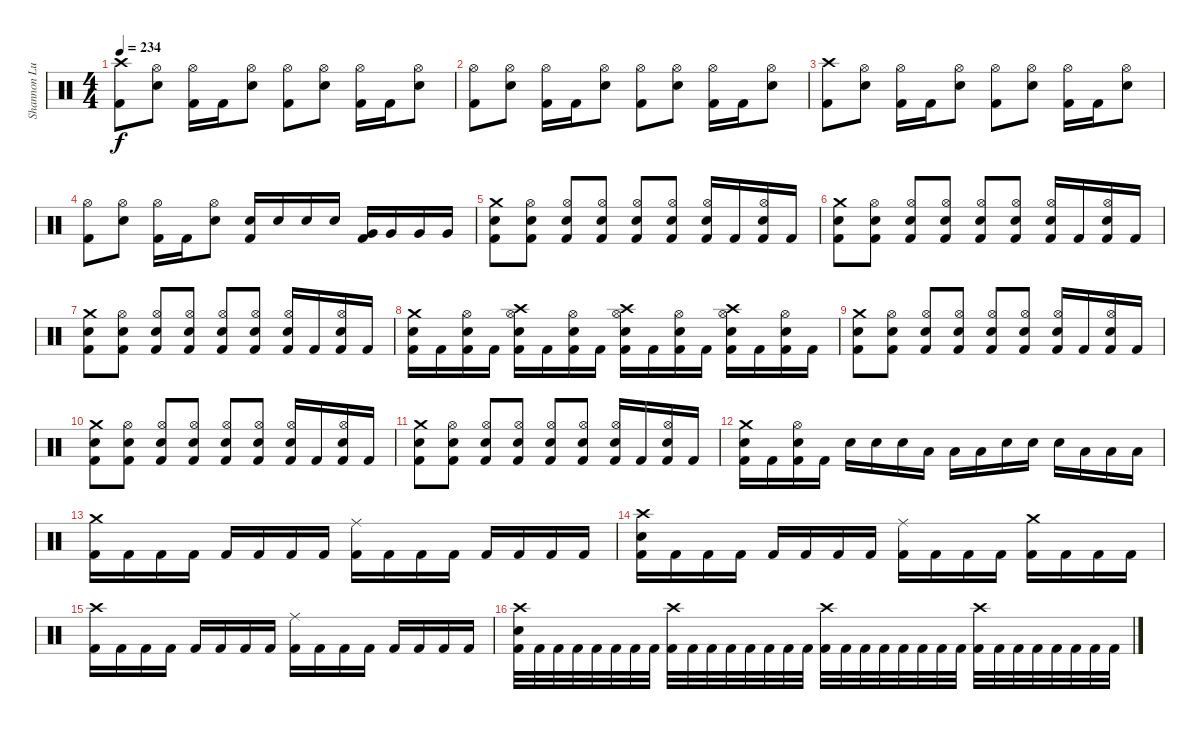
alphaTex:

\track ("Shannon Lucas (Drums)" "Shannon Lu") {instrument percussion}
\staff {score}
\articulation defaults
\ts (4 4)
\tempo 234
\clef neutral
\ks c
("Crash high (hit)" "Kick (hit) 2").8{dy f} ("Hi-Hat (open)" "Electric Snare (hit)").8 ("Hi-Hat (open)" "Kick (hit) 2").16 "Kick (hit) 2".16 ("Hi-Hat (open)" "Electric Snare (hit)").8 ("Hi-Hat (open)" "Kick (hit) 2").8 ("Hi-Hat (open)" "Electric Snare (hit)").8 ("Hi-Hat (open)" "Kick (hit) 2").16 "Kick (hit) 2".16 ("Hi-Hat (open)" "Electric Snare (hit)").8 |
("Hi-Hat (open)" "Kick (hit) 2").8 ("Hi-Hat (open)" "Electric Snare (hit)").8 ("Hi-Hat (open)" "Kick (hit) 2").16 "Kick (hit) 2".16 ("Hi-Hat (open)" "Electric Snare (hit)").8 ("Hi-Hat (open)" "Kick (hit) 2").8 ("Hi-Hat (open)" "Electric Snare (hit)").8 ("Hi-Hat (open)" "Kick (hit) 2").16 "Kick (hit) 2".16 ("Hi-Hat (open)" "Electric Snare (hit)").8 |
("Crash high (hit)" "Kick (hit) 2").8 ("Hi-Hat (open)" "Electric Snare (hit)").8 ("Hi-Hat (open)" "Kick (hit) 2").16 "Kick (hit) 2".16 ("Hi-Hat (open)" "Electric Snare (hit)").8 ("Hi-Hat (open)" "Kick (hit) 2").8 ("Hi-Hat (open)" "Electric Snare (hit)").8 ("Hi-Hat (open)" "Kick (hit) 2").16 "Kick (hit) 2".16 ("Hi-Hat (open)" "Electric Snare (hit)").8 |
("Hi-Hat (open)" "Kick (hit) 2").8 ("Hi-Hat (open)" "Electric Snare (hit)").8 ("Hi-Hat (open)" "Kick (hit) 2").16 "Kick (hit) 2".16 ("Hi-Hat (open)" "Electric Snare (hit)").8 ("Electric Snare (hit)" "Kick (hit) 2").16 "Electric Snare (hit)".16 "Electric Snare (hit)".16 "Electric Snare (hit)".16 ("Very Low Tom (hit)" "Kick (hit) 2").16 "Very Low Tom (hit)".16 "Very Low Tom (hit)".16 "Very Low Tom (hit)".16 |
("Crash medium (hit)" "Electric Snare (hit)" "Kick (hit) 2").8 ("Hi-Hat (open)" "Electric Snare (hit)" "Kick (hit) 2").8 ("Hi-Hat (open)" "Electric Snare (hit)" "Kick (hit) 2").8 ("Hi-Hat (open)" "Electric Snare (hit)" "Kick (hit) 2").8 ("Hi-Hat (open)" "Electric Snare (hit)" "Kick (hit) 2").8 ("Hi-Hat (open)" "Electric Snare (hit)" "Kick (hit) 2").8 ("Hi-Hat (open)" "Electric Snare (hit)" "Kick (hit) 2").16 "Kick (hit) 2".16 ("Hi-Hat (open)" "Electric Snare (hit)" "Kick (hit) 2").16 "Kick (hit) 2".16 |
("Crash medium (hit)" "Electric Snare (hit)" "Kick (hit) 2").8 ("Hi-Hat (open)" "Electric Snare (hit)" "Kick (hit) 2").8 ("Hi-Hat (open)" "Electric Snare (hit)" "Kick (hit) 2").8 ("Hi-Hat (open)" "Electric Snare (hit)" "Kick (hit) 2").8 ("Hi-Hat (open)" "Electric Snare (hit)" "Kick (hit) 2").8 ("Hi-Hat (open)" "Electric Snare (hit)" "Kick (hit) 2").8 ("Hi-Hat (open)" "Electric Snare (hit)" "Kick (hit) 2").16 "Kick (hit) 2".16 ("Hi-Hat (open)" "Electric Snare (hit)" "Kick (hit) 2").16 "Kick (hit) 2".16 |
("Crash medium (hit)" "Electric Snare (hit)" "Kick (hit) 2").8 ("Hi-Hat (open)" "Electric Snare (hit)" "Kick (hit) 2").8 ("Hi-Hat (open)" "Electric Snare (hit)" "Kick (hit) 2").8 ("Hi-Hat (open)" "Electric Snare (hit)" "Kick (hit) 2").8 ("Hi-Hat (open)" "Electric Snare (hit)" "Kick (hit) 2").8 ("Hi-Hat (open)" "Electric Snare (hit)" "Kick (hit) 2").8 ("Hi-Hat (open)" "Electric Snare (hit)" "Kick (hit) 2").16 "Kick (hit) 2".16 ("Hi-Hat (open)" "Electric Snare (hit)" "Kick (hit) 2").16 "Kick (hit) 2".16 |
("Crash medium (hit)" "Electric Snare (hit)" "Kick (hit) 2").16 "Kick (hit) 2".16 ("Hi-Hat (open)" "Electric Snare (hit)" "Kick (hit) 2").16 "Kick (hit) 2".16 ("Crash high (hit)" "Hi-Hat (open)" "Electric Snare (hit)" "Kick (hit) 2").16 "Kick (hit) 2".16 ("Hi-Hat (open)" "Electric Snare (hit)" "Kick (hit) 2").16 "Kick (hit) 2".16 ("Crash high (hit)" "Hi-Hat (open)" "Electric Snare (hit)" "Kick (hit) 2").16 "Kick (hit) 2".16 ("Hi-Hat (open)" "Electric Snare (hit)" "Kick (hit) 2").16 "Kick (hit) 2".16 ("Crash high (hit)" "Hi-Hat (open)" "Electric Snare (hit)" "Kick (hit) 2").16 "Kick (hit) 2".16 ("Hi-Hat (open)" "Electric Snare (hit)" "Kick (hit) 2").16 "Kick (hit) 2".16 |
("Crash medium (hit)" "Electric Snare (hit)" "Kick (hit) 2").8 ("Hi-Hat (open)" "Electric Snare (hit)" "Kick (hit) 2").8 ("Hi-Hat (open)" "Electric Snare (hit)" "Kick (hit) 2").8 ("Hi-Hat (open)" "Electric Snare (hit)" "Kick (hit) 2").8 ("Hi-Hat (open)" "Electric Snare (hit)" "Kick (hit) 2").8 ("Hi-Hat (open)" "Electric Snare (hit)" "Kick (hit) 2").8 ("Hi-Hat (open)" "Electric Snare (hit)" "Kick (hit) 2").16 "Kick (hit) 2".16 ("Hi-Hat (open)" "Electric Snare (hit)" "Kick (hit) 2").16 "Kick (hit) 2".16 |
("Crash medium (hit)" "Electric Snare (hit)" "Kick (hit) 2").8 ("Hi-Hat (open)" "Electric Snare (hit)" "Kick (hit) 2").8 ("Hi-Hat (open)" "Electric Snare (hit)" "Kick (hit) 2").8 ("Hi-Hat (open)" "Electric Snare (hit)" "Kick (hit) 2").8 ("Hi-Hat (open)" "Electric Snare (hit)" "Kick (hit) 2").8 ("Hi-Hat (open)" "Electric Snare (hit)" "Kick (hit) 2").8 ("Hi-Hat (open)" "Electric Snare (hit)" "Kick (hit) 2").16 "Kick (hit) 2".16 ("Hi-Hat (open)" "Electric Snare (hit)" "Kick (hit) 2").16 "Kick (hit) 2".16 |
("Crash medium (hit)" "Electric Snare (hit)" "Kick (hit) 2").8 ("Hi-Hat (open)" "Electric Snare (hit)" "Kick (hit) 2").8 ("Hi-Hat (open)" "Electric Snare (hit)" "Kick (hit) 2").8 ("Hi-Hat (open)" "Electric Snare (hit)" "Kick (hit) 2").8 ("Hi-Hat (open)" "Electric Snare (hit)" "Kick (hit) 2").8 ("Hi-Hat (open)" "Electric Snare (hit)" "Kick (hit) 2").8 ("Hi-Hat (open)" "Electric Snare (hit)" "Kick (hit) 2").16 "Kick (hit) 2".16 ("Hi-Hat (open)" "Electric Snare (hit)" "Kick (hit) 2").16 "Kick (hit) 2".16 |
("Crash medium (hit)" "Electric Snare (hit)" "Kick (hit) 2").16 "Kick (hit) 2".16 ("Hi-Hat (open)" "Electric Snare (hit)" "Kick (hit) 2").16 "Kick (hit) 2".16 "Electric Snare (hit)".16 "Electric Snare (hit)".16 "Electric Snare (hit)".16 "Low Tom (hit)".16 "Low Tom (hit)".16 "Low Tom (hit)".16 "Electric Snare (hit)".16 "Electric Snare (hit)".16 "Electric Snare (hit)".16 "Low Tom (hit)".16 "Low Tom (hit)".16 "Low Tom (hit)".16 |
("Crash medium (hit)" "Kick (hit) 2").16 "Kick (hit) 2".16 "Kick (hit) 2".16 "Kick (hit) 2".16 "Kick (hit) 2".16 "Kick (hit) 2".16 "Kick (hit) 2".16 "Kick (hit) 2".16 ("Ride (middle)" "Kick (hit) 2").16 "Kick (hit) 2".16 "Kick (hit) 2".16 "Kick (hit) 2".16 "Kick (hit) 2".16 "Kick (hit) 2".16 "Kick (hit) 2".16 "Kick (hit) 2".16 |
("Crash high (hit)" "Electric Snare (hit)" "Kick (hit) 2").16 "Kick (hit) 2".16 "Kick (hit) 2".16 "Kick (hit) 2".16 "Kick (hit) 2".16 "Kick (hit) 2".16 "Kick (hit) 2".16 "Kick (hit) 2".16 ("Ride (middle)" "Kick (hit) 2").16 "Kick (hit) 2".16 "Kick (hit) 2".16 "Kick (hit) 2".16 ("Crash medium (hit)" "Kick (hit) 2").16 "Kick (hit) 2".16 "Kick (hit) 2".16 "Kick (hit) 2".16 |
("Crash high (hit)" "Kick (hit) 2").16 "Kick (hit) 2".16 "Kick (hit) 2".16 "Kick (hit) 2".16 "Kick (hit) 2".16 "Kick (hit) 2".16 "Kick (hit) 2".16 "Kick (hit) 2".16 ("Ride (middle)" "Kick (hit) 2").16 "Kick (hit) 2".16 "Kick (hit) 2".16 "Kick (hit) 2".16 "Kick (hit) 2".16 "Kick (hit) 2".16 "Kick (hit) 2".16 "Kick (hit) 2".16 |
("Crash high (hit)" "Electric Snare (hit)" "Kick (hit) 2").32 "Kick (hit) 2".32 "Kick (hit) 2".32 "Kick (hit) 2".32 "Kick (hit) 2".32 "Kick (hit) 2".32 "Kick (hit) 2".32 "Kick (hit) 2".32 ("Crash high (hit)" "Kick (hit) 2").32 "Kick (hit) 2".32 "Kick (hit) 2".32 "Kick (hit) 2".32 "Kick (hit) 2".32 "Kick (hit) 2".32 "Kick (hit) 2".32 "Kick (hit) 2".32 ("Crash high (hit)" "Kick (hit) 2").32 "Kick (hit) 2".32 "Kick (hit) 2".32 "Kick (hit) 2".32 "Kick (hit) 2".32 "Kick (hit) 2".32 "Kick (hit) 2".32 "Kick (hit) 2".32 ("Crash high (hit)" "Kick (hit) 2").32 "Kick (hit) 2".32 "Kick (hit) 2".32 "Kick (hit) 2".32 "Kick (hit) 2".32 "Kick (hit) 2".32 "Kick (hit) 2".32 "Kick (hit) 2".32
